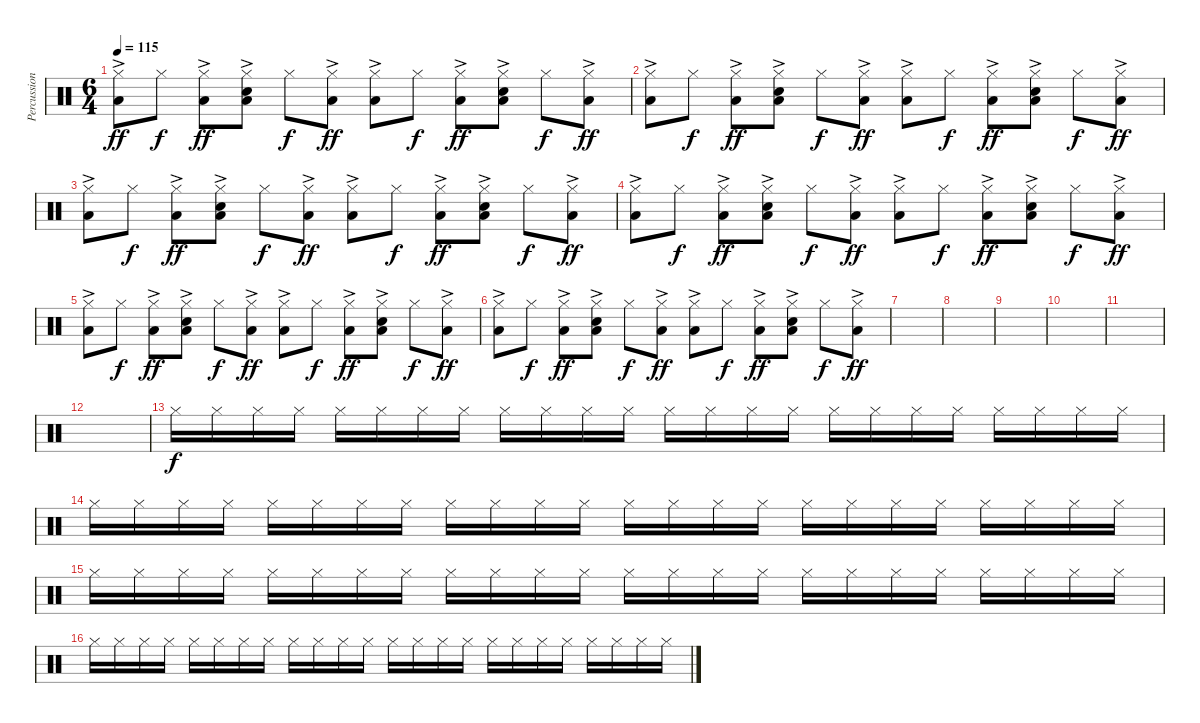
\track ("Percussion" "Percussion") {instrument percussion}
\staff {score}
\articulation defaults
\ts (6 4)
\tempo 115
\clef neutral
\ks c
("Hi-Hat (closed)" "Low Floor Tom (hit)"{ac}).8{dy ff} "Hi-Hat (closed)".8{dy f} ("Hi-Hat (closed)" "Low Floor Tom (hit)"{ac}).8{dy ff} ("Hi-Hat (closed)" "Electric Snare (hit)"{ac} "Low Floor Tom (hit)"{ac}).8 "Hi-Hat (closed)".8{dy f} ("Hi-Hat (closed)" "Low Floor Tom (hit)"{ac}).8{dy ff} ("Hi-Hat (closed)" "Low Floor Tom (hit)"{ac}).8 "Hi-Hat (closed)".8{dy f} ("Hi-Hat (closed)" "Low Floor Tom (hit)"{ac}).8{dy ff} ("Hi-Hat (closed)" "Electric Snare (hit)"{ac} "Low Floor Tom (hit)"{ac}).8 "Hi-Hat (closed)".8{dy f} ("Hi-Hat (closed)" "Low Floor Tom (hit)"{ac}).8{dy ff} |
("Hi-Hat (closed)" "Low Floor Tom (hit)"{ac}).8 "Hi-Hat (closed)".8{dy f} ("Hi-Hat (closed)" "Low Floor Tom (hit)"{ac}).8{dy ff} ("Hi-Hat (closed)" "Electric Snare (hit)"{ac} "Low Floor Tom (hit)"{ac}).8 "Hi-Hat (closed)".8{dy f} ("Hi-Hat (closed)" "Low Floor Tom (hit)"{ac}).8{dy ff} ("Hi-Hat (closed)" "Low Floor Tom (hit)"{ac}).8 "Hi-Hat (closed)".8{dy f} ("Hi-Hat (closed)" "Low Floor Tom (hit)"{ac}).8{dy ff} ("Hi-Hat (closed)" "Electric Snare (hit)"{ac} "Low Floor Tom (hit)"{ac}).8 "Hi-Hat (closed)".8{dy f} ("Hi-Hat (closed)" "Low Floor Tom (hit)"{ac}).8{dy ff} |
("Hi-Hat (closed)" "Low Floor Tom (hit)"{ac}).8 "Hi-Hat (closed)".8{dy f} ("Hi-Hat (closed)" "Low Floor Tom (hit)"{ac}).8{dy ff} ("Hi-Hat (closed)" "Electric Snare (hit)"{ac} "Low Floor Tom (hit)"{ac}).8 "Hi-Hat (closed)".8{dy f} ("Hi-Hat (closed)" "Low Floor Tom (hit)"{ac}).8{dy ff} ("Hi-Hat (closed)" "Low Floor Tom (hit)"{ac}).8 "Hi-Hat (closed)".8{dy f} ("Hi-Hat (closed)" "Low Floor Tom (hit)"{ac}).8{dy ff} ("Hi-Hat (closed)" "Electric Snare (hit)"{ac} "Low Floor Tom (hit)"{ac}).8 "Hi-Hat (closed)".8{dy f} ("Hi-Hat (closed)" "Low Floor Tom (hit)"{ac}).8{dy ff} |
("Hi-Hat (closed)" "Low Floor Tom (hit)"{ac}).8 "Hi-Hat (closed)".8{dy f} ("Hi-Hat (closed)" "Low Floor Tom (hit)"{ac}).8{dy ff} ("Hi-Hat (closed)" "Electric Snare (hit)"{ac} "Low Floor Tom (hit)"{ac}).8 "Hi-Hat (closed)".8{dy f} ("Hi-Hat (closed)" "Low Floor Tom (hit)"{ac}).8{dy ff} ("Hi-Hat (closed)" "Low Floor Tom (hit)"{ac}).8 "Hi-Hat (closed)".8{dy f} ("Hi-Hat (closed)" "Low Floor Tom (hit)"{ac}).8{dy ff} ("Hi-Hat (closed)" "Electric Snare (hit)"{ac} "Low Floor Tom (hit)"{ac}).8 "Hi-Hat (closed)".8{dy f} ("Hi-Hat (closed)" "Low Floor Tom (hit)"{ac}).8{dy ff} |
("Hi-Hat (closed)" "Low Floor Tom (hit)"{ac}).8 "Hi-Hat (closed)".8{dy f} ("Hi-Hat (closed)" "Low Floor Tom (hit)"{ac}).8{dy ff} ("Hi-Hat (closed)" "Electric Snare (hit)"{ac} "Low Floor Tom (hit)"{ac}).8 "Hi-Hat (closed)".8{dy f} ("Hi-Hat (closed)" "Low Floor Tom (hit)"{ac}).8{dy ff} ("Hi-Hat (closed)" "Low Floor Tom (hit)"{ac}).8 "Hi-Hat (closed)".8{dy f} ("Hi-Hat (closed)" "Low Floor Tom (hit)"{ac}).8{dy ff} ("Hi-Hat (closed)" "Electric Snare (hit)"{ac} "Low Floor Tom (hit)"{ac}).8 "Hi-Hat (closed)".8{dy f} ("Hi-Hat (closed)" "Low Floor Tom (hit)"{ac}).8{dy ff} |
("Hi-Hat (closed)" "Low Floor Tom (hit)"{ac}).8 "Hi-Hat (closed)".8{dy f} ("Hi-Hat (closed)" "Low Floor Tom (hit)"{ac}).8{dy ff} ("Hi-Hat (closed)" "Electric Snare (hit)"{ac} "Low Floor Tom (hit)"{ac}).8 "Hi-Hat (closed)".8{dy f} ("Hi-Hat (closed)" "Low Floor Tom (hit)"{ac}).8{dy ff} ("Hi-Hat (closed)" "Low Floor Tom (hit)"{ac}).8 "Hi-Hat (closed)".8{dy f} ("Hi-Hat (closed)" "Low Floor Tom (hit)"{ac}).8{dy ff} ("Hi-Hat (closed)" "Electric Snare (hit)"{ac} "Low Floor Tom (hit)"{ac}).8 "Hi-Hat (closed)".8{dy f} ("Hi-Hat (closed)" "Low Floor Tom (hit)"{ac}).8{dy ff} |
|
|
|
|
|
|
"Hi-Hat (closed)".16{dy f volume 6} "Hi-Hat (closed)".16 "Hi-Hat (closed)".16 "Hi-Hat (closed)".16 "Hi-Hat (closed)".16 "Hi-Hat (closed)".16 "Hi-Hat (closed)".16 "Hi-Hat (closed)".16 "Hi-Hat (closed)".16 "Hi-Hat (closed)".16 "Hi-Hat (closed)".16 "Hi-Hat (closed)".16 "Hi-Hat (closed)".16 "Hi-Hat (closed)".16 "Hi-Hat (closed)".16 "Hi-Hat (closed)".16 "Hi-Hat (closed)".16 "Hi-Hat (closed)".16 "Hi-Hat (closed)".16 "Hi-Hat (closed)".16 "Hi-Hat (closed)".16 "Hi-Hat (closed)".16 "Hi-Hat (closed)".16 "Hi-Hat (closed)".16 |
"Hi-Hat (closed)".16 "Hi-Hat (closed)".16 "Hi-Hat (closed)".16 "Hi-Hat (closed)".16 "Hi-Hat (closed)".16 "Hi-Hat (closed)".16 "Hi-Hat (closed)".16 "Hi-Hat (closed)".16 "Hi-Hat (closed)".16 "Hi-Hat (closed)".16 "Hi-Hat (closed)".16 "Hi-Hat (closed)".16 "Hi-Hat (closed)".16 "Hi-Hat (closed)".16 "Hi-Hat (closed)".16 "Hi-Hat (closed)".16 "Hi-Hat (closed)".16 "Hi-Hat (closed)".16 "Hi-Hat (closed)".16 "Hi-Hat (closed)".16 "Hi-Hat (closed)".16 "Hi-Hat (closed)".16 "Hi-Hat (closed)".16 "Hi-Hat (closed)".16 |
"Hi-Hat (closed)".16{volume 16} "Hi-Hat (closed)".16 "Hi-Hat (closed)".16 "Hi-Hat (closed)".16 "Hi-Hat (closed)".16 "Hi-Hat (closed)".16 "Hi-Hat (closed)".16 "Hi-Hat (closed)".16 "Hi-Hat (closed)".16 "Hi-Hat (closed)".16 "Hi-Hat (closed)".16 "Hi-Hat (closed)".16 "Hi-Hat (closed)".16 "Hi-Hat (closed)".16 "Hi-Hat (closed)".16 "Hi-Hat (closed)".16 "Hi-Hat (closed)".16 "Hi-Hat (closed)".16 "Hi-Hat (closed)".16 "Hi-Hat (closed)".16 "Hi-Hat (closed)".16 "Hi-Hat (closed)".16 "Hi-Hat (closed)".16 "Hi-Hat (closed)".16 |
"Hi-Hat (closed)".16{volume 16} "Hi-Hat (closed)".16 "Hi-Hat (closed)".16 "Hi-Hat (closed)".16 "Hi-Hat (closed)".16 "Hi-Hat (closed)".16 "Hi-Hat (closed)".16 "Hi-Hat (closed)".16 "Hi-Hat (closed)".16 "Hi-Hat (closed)".16 "Hi-Hat (closed)".16 "Hi-Hat (closed)".16 "Hi-Hat (closed)".16 "Hi-Hat (closed)".16 "Hi-Hat (closed)".16 "Hi-Hat (closed)".16 "Hi-Hat (closed)".16 "Hi-Hat (closed)".16 "Hi-Hat (closed)".16 "Hi-Hat (closed)".16 "Hi-Hat (closed)".16 "Hi-Hat (closed)".16 "Hi-Hat (closed)".16 "Hi-Hat (closed)".16
